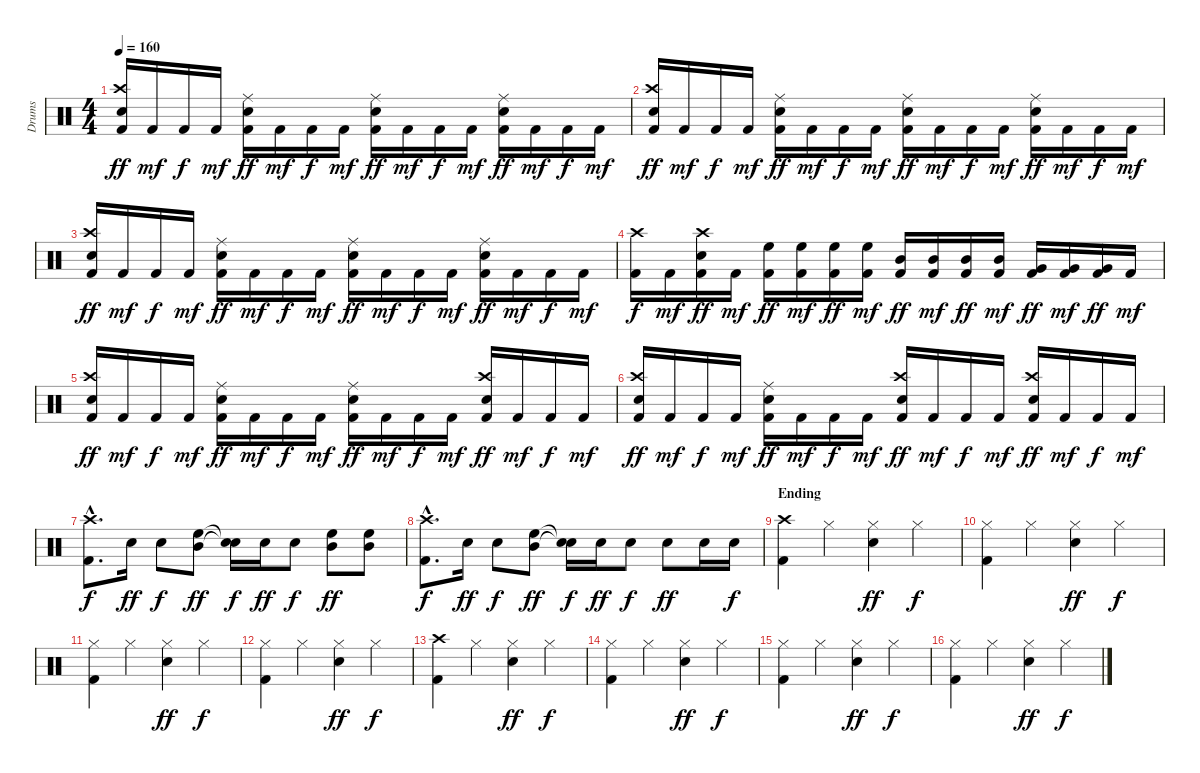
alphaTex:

\track ("Drums" "Drums") {instrument percussion}
\staff {score}
\articulation defaults
\ts (4 4)
\tempo 160
\clef neutral
\ks c
("Snare (hit) 2" "Crash high (hit)" "Kick (hit) 2").16{dy ff} "Kick (hit) 2".16{dy mf} "Kick (hit) 2".16{dy f} "Kick (hit) 2".16{dy mf} ("Snare (hit) 2" "Ride (middle)" "Kick (hit) 2").16{dy ff} "Kick (hit) 2".16{dy mf} "Kick (hit) 2".16{dy f} "Kick (hit) 2".16{dy mf} ("Snare (hit) 2" "Ride (middle)" "Kick (hit) 2").16{dy ff} "Kick (hit) 2".16{dy mf} "Kick (hit) 2".16{dy f} "Kick (hit) 2".16{dy mf} ("Snare (hit) 2" "Ride (middle)" "Kick (hit) 2").16{dy ff} "Kick (hit) 2".16{dy mf} "Kick (hit) 2".16{dy f} "Kick (hit) 2".16{dy mf} |
("Snare (hit) 2" "Crash high (hit)" "Kick (hit) 2").16{dy ff} "Kick (hit) 2".16{dy mf} "Kick (hit) 2".16{dy f} "Kick (hit) 2".16{dy mf} ("Snare (hit) 2" "Ride (middle)" "Kick (hit) 2").16{dy ff} "Kick (hit) 2".16{dy mf} "Kick (hit) 2".16{dy f} "Kick (hit) 2".16{dy mf} ("Snare (hit) 2" "Ride (middle)" "Kick (hit) 2").16{dy ff} "Kick (hit) 2".16{dy mf} "Kick (hit) 2".16{dy f} "Kick (hit) 2".16{dy mf} ("Snare (hit) 2" "Ride (middle)" "Kick (hit) 2").16{dy ff} "Kick (hit) 2".16{dy mf} "Kick (hit) 2".16{dy f} "Kick (hit) 2".16{dy mf} |
("Snare (hit) 2" "Crash high (hit)" "Kick (hit) 2").16{dy ff} "Kick (hit) 2".16{dy mf} "Kick (hit) 2".16{dy f} "Kick (hit) 2".16{dy mf} ("Snare (hit) 2" "Ride (middle)" "Kick (hit) 2").16{dy ff} "Kick (hit) 2".16{dy mf} "Kick (hit) 2".16{dy f} "Kick (hit) 2".16{dy mf} ("Snare (hit) 2" "Ride (middle)" "Kick (hit) 2").16{dy ff} "Kick (hit) 2".16{dy mf} "Kick (hit) 2".16{dy f} "Kick (hit) 2".16{dy mf} ("Snare (hit) 2" "Ride (middle)" "Kick (hit) 2").16{dy ff} "Kick (hit) 2".16{dy mf} "Kick (hit) 2".16{dy f} "Kick (hit) 2".16{dy mf} |
("Crash high (hit)" "Kick (hit) 2").16{dy f} "Kick (hit) 2".16{dy mf} ("Snare (hit) 2" "Crash high (hit)" "Kick (hit) 2").16{dy ff} "Kick (hit) 2".16{dy mf} ("High Floor Tom (hit)" "Kick (hit) 2").16{dy ff} ("High Floor Tom (hit)" "Kick (hit) 2").16{dy mf} ("High Floor Tom (hit)" "Kick (hit) 2").16{dy ff} ("High Floor Tom (hit)" "Kick (hit) 2").16{dy mf} ("Mid Tom (hit)" "Kick (hit) 2").16{dy ff} ("Mid Tom (hit)" "Kick (hit) 2").16{dy mf} ("Mid Tom (hit)" "Kick (hit) 2").16{dy ff} ("Mid Tom (hit)" "Kick (hit) 2").16{dy mf} ("Very Low Tom (hit)" "Kick (hit) 2").16{dy ff} ("Very Low Tom (hit)" "Kick (hit) 2").16{dy mf} ("Very Low Tom (hit)" "Kick (hit) 2").16{dy ff} "Kick (hit) 2".16{dy mf} |
("Snare (hit) 2" "Crash high (hit)" "Kick (hit) 2").16{dy ff} "Kick (hit) 2".16{dy mf} "Kick (hit) 2".16{dy f} "Kick (hit) 2".16{dy mf} ("Snare (hit) 2" "Ride (middle)" "Kick (hit) 2").16{dy ff} "Kick (hit) 2".16{dy mf} "Kick (hit) 2".16{dy f} "Kick (hit) 2".16{dy mf} ("Snare (hit) 2" "Ride (middle)" "Kick (hit) 2").16{dy ff} "Kick (hit) 2".16{dy mf} "Kick (hit) 2".16{dy f} "Kick (hit) 2".16{dy mf} ("Snare (hit) 2" "Crash high (hit)" "Kick (hit) 2").16{dy ff} "Kick (hit) 2".16{dy mf} "Kick (hit) 2".16{dy f} "Kick (hit) 2".16{dy mf} |
("Snare (hit) 2" "Crash high (hit)" "Kick (hit) 2").16{dy ff} "Kick (hit) 2".16{dy mf} "Kick (hit) 2".16{dy f} "Kick (hit) 2".16{dy mf} ("Snare (hit) 2" "Ride (middle)" "Kick (hit) 2").16{dy ff} "Kick (hit) 2".16{dy mf} "Kick (hit) 2".16{dy f} "Kick (hit) 2".16{dy mf} ("Snare (hit) 2" "Crash high (hit)" "Kick (hit) 2").16{dy ff} "Kick (hit) 2".16{dy mf} "Kick (hit) 2".16{dy f} "Kick (hit) 2".16{dy mf} ("Snare (hit) 2" "Crash high (hit)" "Kick (hit) 2").16{dy ff} "Kick (hit) 2".16{dy mf} "Kick (hit) 2".16{dy f} "Kick (hit) 2".16{dy mf} |
("Crash high (hit)"{hac} "Kick (hit) 2"{hac}).8{d dy f} "Snare (hit) 2".16{dy ff} "Snare (hit) 2".8{dy f} ("Mid Tom (hit)" "High Floor Tom (hit)").8{dy ff} ("Snare (hit)"{t} "Snare (hit)"{t}).16{dy f} "Snare (hit) 2".16{dy ff} "Snare (hit) 2".8{dy f} ("Mid Tom (hit)" "High Floor Tom (hit)").8{dy ff} ("Mid Tom (hit)" "High Floor Tom (hit)").8 |
("Crash high (hit)"{hac} "Kick (hit) 2"{hac}).8{d dy f} "Snare (hit) 2".16{dy ff} "Snare (hit) 2".8{dy f} ("Mid Tom (hit)" "High Floor Tom (hit)").8{dy ff} ("Snare (hit)"{t} "Snare (hit)"{t}).16{dy f} "Snare (hit) 2".16{dy ff} "Snare (hit) 2".8{dy f} "Snare (hit) 2".8{dy ff} "Snare (hit) 2".16 "Snare (hit) 2".16{dy f} |
\section ("" "Ending")
("Crash high (hit)" "Kick (hit) 2").4 "Hi-Hat (closed)".4 ("Snare (hit) 2" "Hi-Hat (closed)").4{dy ff} "Hi-Hat (closed)".4{dy f} |
("Hi-Hat (closed)" "Kick (hit) 2").4 "Hi-Hat (closed)".4 ("Snare (hit) 2" "Hi-Hat (closed)").4{dy ff} "Hi-Hat (closed)".4{dy f} |
("Hi-Hat (closed)" "Kick (hit) 2").4 "Hi-Hat (closed)".4 ("Snare (hit) 2" "Hi-Hat (closed)").4{dy ff} "Hi-Hat (closed)".4{dy f} |
("Hi-Hat (closed)" "Kick (hit) 2").4 "Hi-Hat (closed)".4 ("Snare (hit) 2" "Hi-Hat (closed)").4{dy ff} "Hi-Hat (closed)".4{dy f} |
("Crash high (hit)" "Kick (hit) 2").4 "Hi-Hat (closed)".4 ("Snare (hit) 2" "Hi-Hat (closed)").4{dy ff} "Hi-Hat (closed)".4{dy f} |
("Hi-Hat (closed)" "Kick (hit) 2").4 "Hi-Hat (closed)".4 ("Snare (hit) 2" "Hi-Hat (closed)").4{dy ff} "Hi-Hat (closed)".4{dy f} |
("Hi-Hat (closed)" "Kick (hit) 2").4 "Hi-Hat (closed)".4 ("Snare (hit) 2" "Hi-Hat (closed)").4{dy ff} "Hi-Hat (closed)".4{dy f} |
("Hi-Hat (closed)" "Kick (hit) 2").4 "Hi-Hat (closed)".4 ("Snare (hit) 2" "Hi-Hat (closed)").4{dy ff} "Hi-Hat (closed)".4{dy f}
